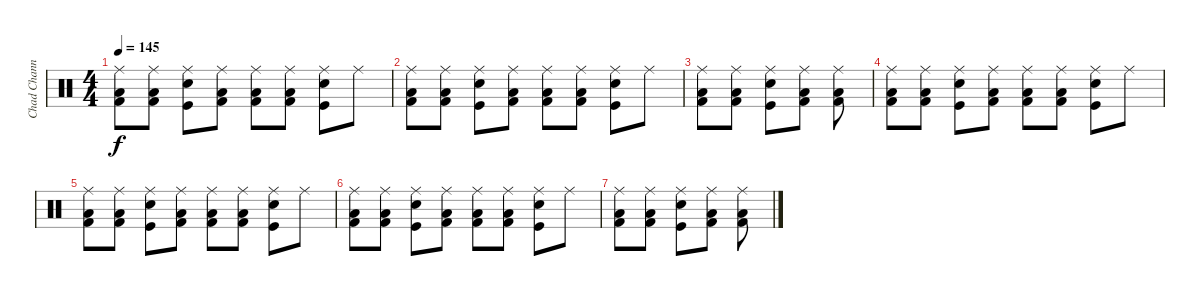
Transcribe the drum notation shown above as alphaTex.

\track ("Chad Channing" "Chad Chann") {instrument percussion}
\staff {score}
\articulation defaults
\ts (4 4)
\tempo 145
\clef neutral
\ks c
("Ride (middle)" "Low Floor Tom (hit)" "Kick (hit) 2").8{dy f} ("Ride (middle)" "Low Floor Tom (hit)" "Kick (hit) 2").8 ("Snare (hit) 2" "Ride (middle)" "Kick (hit)").8 ("Ride (middle)" "Low Floor Tom (hit)" "Kick (hit) 2").8 ("Ride (middle)" "Low Floor Tom (hit)" "Kick (hit) 2").8 ("Ride (middle)" "Low Floor Tom (hit)" "Kick (hit) 2").8 ("Snare (hit) 2" "Ride (middle)" "Kick (hit)").8 "Ride (middle)".8 |
("Ride (middle)" "Low Floor Tom (hit)" "Kick (hit) 2").8 ("Ride (middle)" "Low Floor Tom (hit)" "Kick (hit) 2").8 ("Snare (hit) 2" "Ride (middle)" "Kick (hit)").8 ("Ride (middle)" "Low Floor Tom (hit)" "Kick (hit) 2").8 ("Ride (middle)" "Low Floor Tom (hit)" "Kick (hit) 2").8 ("Ride (middle)" "Low Floor Tom (hit)" "Kick (hit) 2").8 ("Snare (hit) 2" "Ride (middle)" "Kick (hit)").8 "Ride (middle)".8 |
("Ride (middle)" "Low Floor Tom (hit)" "Kick (hit) 2").8 ("Ride (middle)" "Low Floor Tom (hit)" "Kick (hit) 2").8 ("Snare (hit) 2" "Ride (middle)" "Kick (hit)").8 ("Ride (middle)" "Low Floor Tom (hit)" "Kick (hit) 2").8 ("Ride (middle)" "Low Floor Tom (hit)" "Kick (hit) 2").8 |
("Ride (middle)" "Low Floor Tom (hit)" "Kick (hit) 2").8 ("Ride (middle)" "Low Floor Tom (hit)" "Kick (hit) 2").8 ("Snare (hit) 2" "Ride (middle)" "Kick (hit)").8 ("Ride (middle)" "Low Floor Tom (hit)" "Kick (hit) 2").8 ("Ride (middle)" "Low Floor Tom (hit)" "Kick (hit) 2").8 ("Ride (middle)" "Low Floor Tom (hit)" "Kick (hit) 2").8 ("Snare (hit) 2" "Ride (middle)" "Kick (hit)").8 "Ride (middle)".8 |
("Ride (middle)" "Low Floor Tom (hit)" "Kick (hit) 2").8 ("Ride (middle)" "Low Floor Tom (hit)" "Kick (hit) 2").8 ("Snare (hit) 2" "Ride (middle)" "Kick (hit)").8 ("Ride (middle)" "Low Floor Tom (hit)" "Kick (hit) 2").8 ("Ride (middle)" "Low Floor Tom (hit)" "Kick (hit) 2").8 ("Ride (middle)" "Low Floor Tom (hit)" "Kick (hit) 2").8 ("Snare (hit) 2" "Ride (middle)" "Kick (hit)").8 "Ride (middle)".8 |
("Ride (middle)" "Low Floor Tom (hit)" "Kick (hit) 2").8 ("Ride (middle)" "Low Floor Tom (hit)" "Kick (hit) 2").8 ("Snare (hit) 2" "Ride (middle)" "Kick (hit)").8 ("Ride (middle)" "Low Floor Tom (hit)" "Kick (hit) 2").8 ("Ride (middle)" "Low Floor Tom (hit)" "Kick (hit) 2").8 ("Ride (middle)" "Low Floor Tom (hit)" "Kick (hit) 2").8 ("Snare (hit) 2" "Ride (middle)" "Kick (hit)").8 "Ride (middle)".8 |
("Ride (middle)" "Low Floor Tom (hit)" "Kick (hit) 2").8 ("Ride (middle)" "Low Floor Tom (hit)" "Kick (hit) 2").8 ("Snare (hit) 2" "Ride (middle)" "Kick (hit)").8 ("Ride (middle)" "Low Floor Tom (hit)" "Kick (hit) 2").8 ("Ride (middle)" "Low Floor Tom (hit)" "Kick (hit) 2").8
